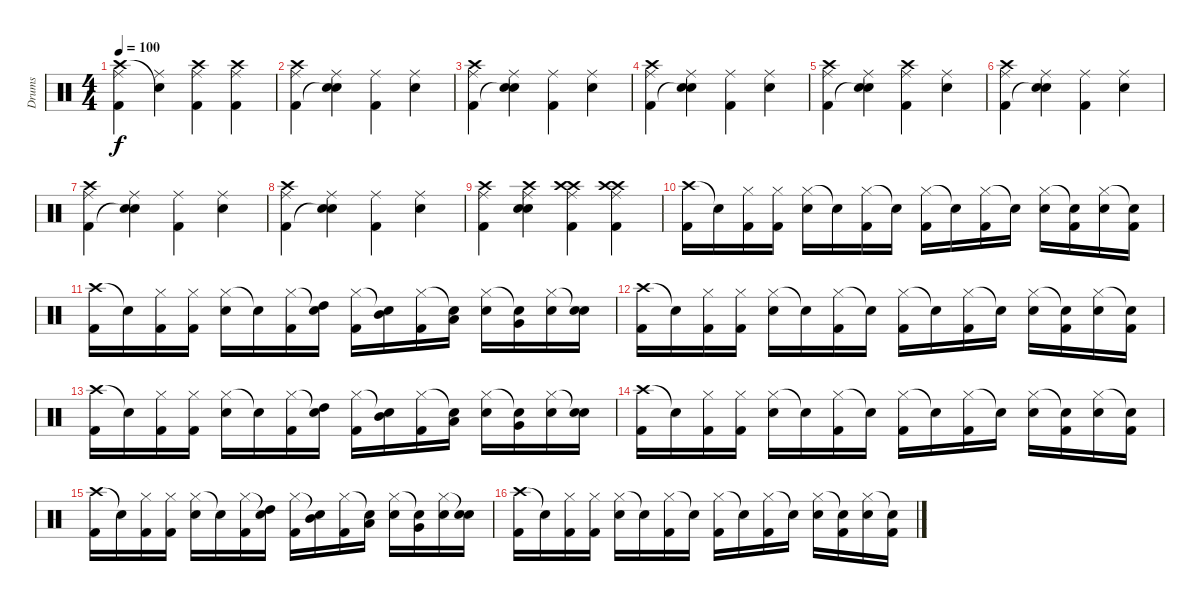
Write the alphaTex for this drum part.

\track ("Drums" "Drums") {instrument percussion}
\staff {score}
\articulation defaults
\ts (4 4)
\tempo 100
\clef neutral
\ks c
("Ride (middle)" "Crash high (hit)" "Kick (hit) 2").4{dy f} ("Ride (middle)" "Snare (hit)"{t}).4 ("Ride (middle)" "Crash high (hit)" "Kick (hit) 2").4 ("Ride (middle)" "Crash high (hit)" "Kick (hit) 2").4 |
("Ride (middle)" "Crash high (hit)" "Kick (hit) 2").4 ("Ride (middle)" "Electric Snare (hit)" "Snare (hit)"{t}).4 ("Ride (middle)" "Kick (hit) 2").4 ("Ride (middle)" "Electric Snare (hit)").4 |
("Ride (middle)" "Crash high (hit)" "Kick (hit) 2").4 ("Ride (middle)" "Electric Snare (hit)" "Snare (hit)"{t}).4 ("Ride (middle)" "Kick (hit) 2").4 ("Ride (middle)" "Electric Snare (hit)").4 |
("Ride (middle)" "Crash high (hit)" "Kick (hit) 2").4 ("Ride (middle)" "Electric Snare (hit)" "Snare (hit)"{t}).4 ("Ride (middle)" "Kick (hit) 2").4 ("Ride (middle)" "Electric Snare (hit)").4 |
("Ride (middle)" "Crash high (hit)" "Kick (hit) 2").4 ("Ride (middle)" "Electric Snare (hit)" "Snare (hit)"{t}).4 ("Ride (middle)" "Crash high (hit)" "Kick (hit) 2").4 ("Ride (middle)" "Electric Snare (hit)").4 |
("Ride (middle)" "Crash high (hit)" "Kick (hit) 2").4 ("Ride (middle)" "Electric Snare (hit)" "Snare (hit)"{t}).4 ("Ride (middle)" "Kick (hit) 2").4 ("Ride (middle)" "Electric Snare (hit)").4 |
("Ride (middle)" "Crash high (hit)" "Kick (hit) 2").4 ("Ride (middle)" "Electric Snare (hit)" "Snare (hit)"{t}).4 ("Ride (middle)" "Kick (hit) 2").4 ("Ride (middle)" "Electric Snare (hit)").4 |
("Ride (middle)" "Crash high (hit)" "Kick (hit) 2").4 ("Ride (middle)" "Electric Snare (hit)" "Snare (hit)"{t}).4 ("Ride (middle)" "Kick (hit) 2").4 ("Ride (middle)" "Electric Snare (hit)").4 |
("Ride (middle)" "Crash high (hit)" "Kick (hit) 2").4 ("Ride (middle)" "Crash high (hit)" "Electric Snare (hit)" "Snare (hit)").4 ("Ride (middle)" "Crash high (hit)" "Crash high (hit)" "Kick (hit) 2").4 ("Ride (middle)" "Crash high (hit)" "Crash high (hit)" "Kick (hit) 2").4 |
("Crash high (hit)" "Kick (hit) 2").16 "Snare (hit)"{t}.16 ("Hi-Hat (closed)" "Kick (hit) 2").16 ("Hi-Hat (closed)" "Kick (hit) 2").16 ("Hi-Hat (closed)" "Electric Snare (hit)").16 "Snare (hit)"{t}.16 ("Hi-Hat (closed)" "Kick (hit) 2").16 "Snare (hit)"{t}.16 ("Hi-Hat (closed)" "Kick (hit) 2").16 "Snare (hit)"{t}.16 ("Hi-Hat (closed)" "Kick (hit) 2").16 "Snare (hit)"{t}.16 ("Hi-Hat (closed)" "Electric Snare (hit)").16 ("Snare (hit)"{t} "Kick (hit) 2").16 ("Hi-Hat (closed)" "Electric Snare (hit)").16 ("Snare (hit)"{t} "Kick (hit) 2").16 |
("Crash high (hit)" "Kick (hit) 2").16 "Snare (hit)"{t}.16 ("Hi-Hat (closed)" "Kick (hit) 2").16 ("Hi-Hat (closed)" "Kick (hit) 2").16 ("Hi-Hat (closed)" "Electric Snare (hit)").16 "Snare (hit)"{t}.16 ("Hi-Hat (closed)" "Kick (hit) 2").16 ("Snare (hit)"{t} "High Tom (hit)").16 ("Hi-Hat (closed)" "Kick (hit) 2").16 ("Snare (hit)"{t} "Mid Tom (hit)").16 ("Hi-Hat (closed)" "Kick (hit) 2").16 ("Snare (hit)"{t} "Low Tom (hit)").16 ("Hi-Hat (closed)" "Electric Snare (hit)").16 ("Snare (hit)"{t} "Very Low Tom (hit)").16 ("Hi-Hat (closed)" "Electric Snare (hit)").16 ("Snare (hit)"{t} "Electric Snare (hit)").16 |
("Crash high (hit)" "Kick (hit) 2").16 "Snare (hit)"{t}.16 ("Hi-Hat (closed)" "Kick (hit) 2").16 ("Hi-Hat (closed)" "Kick (hit) 2").16 ("Hi-Hat (closed)" "Electric Snare (hit)").16 "Snare (hit)"{t}.16 ("Hi-Hat (closed)" "Kick (hit) 2").16 "Snare (hit)"{t}.16 ("Hi-Hat (closed)" "Kick (hit) 2").16 "Snare (hit)"{t}.16 ("Hi-Hat (closed)" "Kick (hit) 2").16 "Snare (hit)"{t}.16 ("Hi-Hat (closed)" "Electric Snare (hit)").16 ("Snare (hit)"{t} "Kick (hit) 2").16 ("Hi-Hat (closed)" "Electric Snare (hit)").16 ("Snare (hit)"{t} "Kick (hit) 2").16 |
("Crash high (hit)" "Kick (hit) 2").16 "Snare (hit)"{t}.16 ("Hi-Hat (closed)" "Kick (hit) 2").16 ("Hi-Hat (closed)" "Kick (hit) 2").16 ("Hi-Hat (closed)" "Electric Snare (hit)").16 "Snare (hit)"{t}.16 ("Hi-Hat (closed)" "Kick (hit) 2").16 ("Snare (hit)"{t} "High Tom (hit)").16 ("Hi-Hat (closed)" "Kick (hit) 2").16 ("Snare (hit)"{t} "Mid Tom (hit)").16 ("Hi-Hat (closed)" "Kick (hit) 2").16 ("Snare (hit)"{t} "Low Tom (hit)").16 ("Hi-Hat (closed)" "Electric Snare (hit)").16 ("Snare (hit)"{t} "Very Low Tom (hit)").16 ("Hi-Hat (closed)" "Electric Snare (hit)").16 ("Snare (hit)"{t} "Electric Snare (hit)").16 |
("Crash high (hit)" "Kick (hit) 2").16 "Snare (hit)"{t}.16 ("Hi-Hat (closed)" "Kick (hit) 2").16 ("Hi-Hat (closed)" "Kick (hit) 2").16 ("Hi-Hat (closed)" "Electric Snare (hit)").16 "Snare (hit)"{t}.16 ("Hi-Hat (closed)" "Kick (hit) 2").16 "Snare (hit)"{t}.16 ("Hi-Hat (closed)" "Kick (hit) 2").16 "Snare (hit)"{t}.16 ("Hi-Hat (closed)" "Kick (hit) 2").16 "Snare (hit)"{t}.16 ("Hi-Hat (closed)" "Electric Snare (hit)").16 ("Snare (hit)"{t} "Kick (hit) 2").16 ("Hi-Hat (closed)" "Electric Snare (hit)").16 ("Snare (hit)"{t} "Kick (hit) 2").16 |
("Crash high (hit)" "Kick (hit) 2").16 "Snare (hit)"{t}.16 ("Hi-Hat (closed)" "Kick (hit) 2").16 ("Hi-Hat (closed)" "Kick (hit) 2").16 ("Hi-Hat (closed)" "Electric Snare (hit)").16 "Snare (hit)"{t}.16 ("Hi-Hat (closed)" "Kick (hit) 2").16 ("Snare (hit)"{t} "High Tom (hit)").16 ("Hi-Hat (closed)" "Kick (hit) 2").16 ("Snare (hit)"{t} "Mid Tom (hit)").16 ("Hi-Hat (closed)" "Kick (hit) 2").16 ("Snare (hit)"{t} "Low Tom (hit)").16 ("Hi-Hat (closed)" "Electric Snare (hit)").16 ("Snare (hit)"{t} "Very Low Tom (hit)").16 ("Hi-Hat (closed)" "Electric Snare (hit)").16 ("Snare (hit)"{t} "Electric Snare (hit)").16 |
("Crash high (hit)" "Kick (hit) 2").16 "Snare (hit)"{t}.16 ("Hi-Hat (closed)" "Kick (hit) 2").16 ("Hi-Hat (closed)" "Kick (hit) 2").16 ("Hi-Hat (closed)" "Electric Snare (hit)").16 "Snare (hit)"{t}.16 ("Hi-Hat (closed)" "Kick (hit) 2").16 "Snare (hit)"{t}.16 ("Hi-Hat (closed)" "Kick (hit) 2").16 "Snare (hit)"{t}.16 ("Hi-Hat (closed)" "Kick (hit) 2").16 "Snare (hit)"{t}.16 ("Hi-Hat (closed)" "Electric Snare (hit)").16 ("Snare (hit)"{t} "Kick (hit) 2").16 ("Hi-Hat (closed)" "Electric Snare (hit)").16 ("Snare (hit)"{t} "Kick (hit) 2").16
